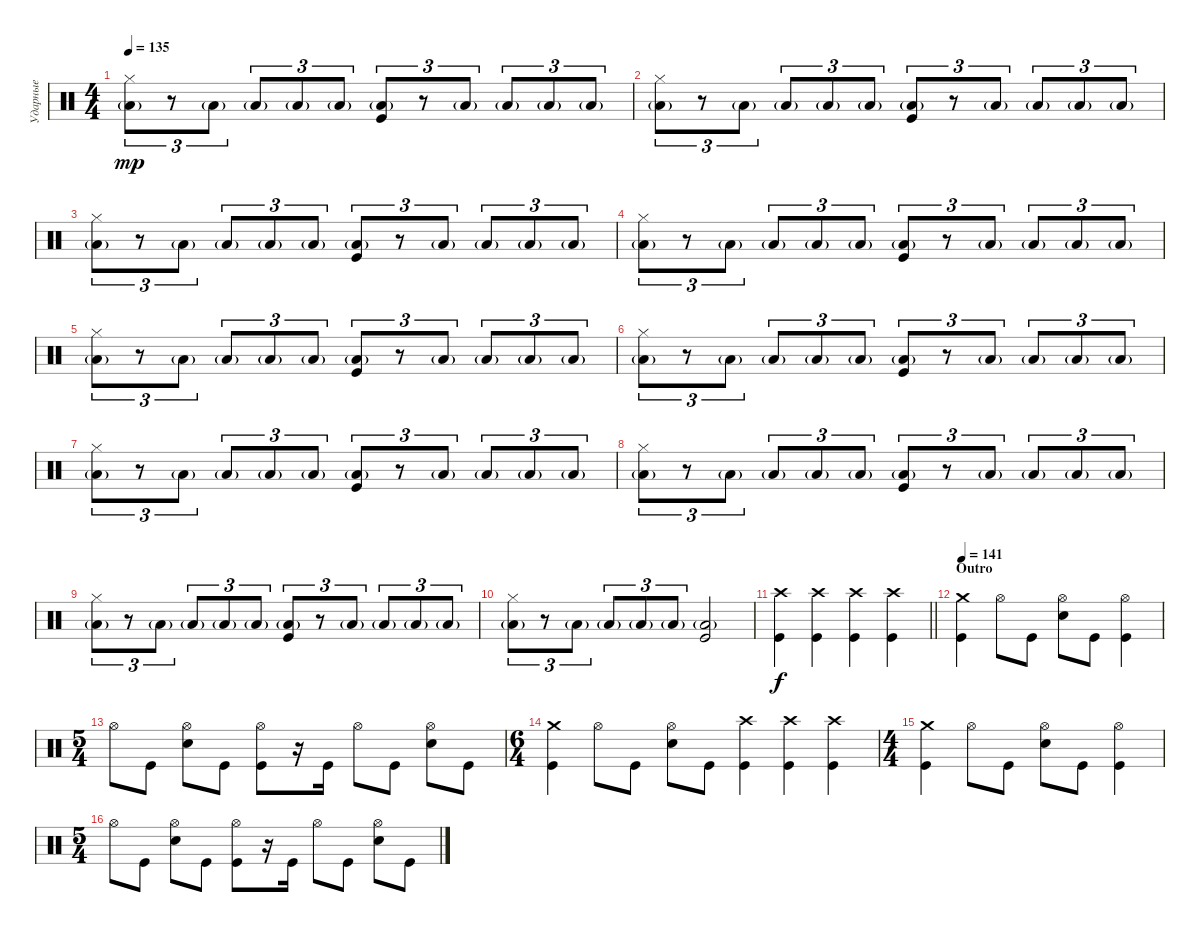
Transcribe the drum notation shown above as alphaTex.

\track ("Ударные" "Ударные") {instrument percussion}
\staff {score}
\articulation defaults
\ts (4 4)
\tempo 135
\clef neutral
\ks c
("Hi-Hat (closed)" "Low Floor Tom (hit)"{g}).8{tu (3 2) dy mp} r.8{tu (3 2)} "Low Floor Tom (hit)"{g}.8{tu (3 2)} "Low Floor Tom (hit)"{g}.8{tu (3 2)} "Low Floor Tom (hit)"{g}.8{tu (3 2)} "Low Floor Tom (hit)"{g}.8{tu (3 2)} ("Low Floor Tom (hit)"{g} "Kick (hit)").8{tu (3 2)} r.8{tu (3 2)} "Low Floor Tom (hit)"{g}.8{tu (3 2)} "Low Floor Tom (hit)"{g}.8{tu (3 2)} "Low Floor Tom (hit)"{g}.8{tu (3 2)} "Low Floor Tom (hit)"{g}.8{tu (3 2)} |
("Hi-Hat (closed)" "Low Floor Tom (hit)"{g}).8{tu (3 2)} r.8{tu (3 2)} "Low Floor Tom (hit)"{g}.8{tu (3 2)} "Low Floor Tom (hit)"{g}.8{tu (3 2)} "Low Floor Tom (hit)"{g}.8{tu (3 2)} "Low Floor Tom (hit)"{g}.8{tu (3 2)} ("Low Floor Tom (hit)"{g} "Kick (hit)").8{tu (3 2)} r.8{tu (3 2)} "Low Floor Tom (hit)"{g}.8{tu (3 2)} "Low Floor Tom (hit)"{g}.8{tu (3 2)} "Low Floor Tom (hit)"{g}.8{tu (3 2)} "Low Floor Tom (hit)"{g}.8{tu (3 2)} |
("Hi-Hat (closed)" "Low Floor Tom (hit)"{g}).8{tu (3 2)} r.8{tu (3 2)} "Low Floor Tom (hit)"{g}.8{tu (3 2)} "Low Floor Tom (hit)"{g}.8{tu (3 2)} "Low Floor Tom (hit)"{g}.8{tu (3 2)} "Low Floor Tom (hit)"{g}.8{tu (3 2)} ("Low Floor Tom (hit)"{g} "Kick (hit)").8{tu (3 2)} r.8{tu (3 2)} "Low Floor Tom (hit)"{g}.8{tu (3 2)} "Low Floor Tom (hit)"{g}.8{tu (3 2)} "Low Floor Tom (hit)"{g}.8{tu (3 2)} "Low Floor Tom (hit)"{g}.8{tu (3 2)} |
("Hi-Hat (closed)" "Low Floor Tom (hit)"{g}).8{tu (3 2)} r.8{tu (3 2)} "Low Floor Tom (hit)"{g}.8{tu (3 2)} "Low Floor Tom (hit)"{g}.8{tu (3 2)} "Low Floor Tom (hit)"{g}.8{tu (3 2)} "Low Floor Tom (hit)"{g}.8{tu (3 2)} ("Low Floor Tom (hit)"{g} "Kick (hit)").8{tu (3 2)} r.8{tu (3 2)} "Low Floor Tom (hit)"{g}.8{tu (3 2)} "Low Floor Tom (hit)"{g}.8{tu (3 2)} "Low Floor Tom (hit)"{g}.8{tu (3 2)} "Low Floor Tom (hit)"{g}.8{tu (3 2)} |
("Hi-Hat (closed)" "Low Floor Tom (hit)"{g}).8{tu (3 2)} r.8{tu (3 2)} "Low Floor Tom (hit)"{g}.8{tu (3 2)} "Low Floor Tom (hit)"{g}.8{tu (3 2)} "Low Floor Tom (hit)"{g}.8{tu (3 2)} "Low Floor Tom (hit)"{g}.8{tu (3 2)} ("Low Floor Tom (hit)"{g} "Kick (hit)").8{tu (3 2)} r.8{tu (3 2)} "Low Floor Tom (hit)"{g}.8{tu (3 2)} "Low Floor Tom (hit)"{g}.8{tu (3 2)} "Low Floor Tom (hit)"{g}.8{tu (3 2)} "Low Floor Tom (hit)"{g}.8{tu (3 2)} |
("Hi-Hat (closed)" "Low Floor Tom (hit)"{g}).8{tu (3 2)} r.8{tu (3 2)} "Low Floor Tom (hit)"{g}.8{tu (3 2)} "Low Floor Tom (hit)"{g}.8{tu (3 2)} "Low Floor Tom (hit)"{g}.8{tu (3 2)} "Low Floor Tom (hit)"{g}.8{tu (3 2)} ("Low Floor Tom (hit)"{g} "Kick (hit)").8{tu (3 2)} r.8{tu (3 2)} "Low Floor Tom (hit)"{g}.8{tu (3 2)} "Low Floor Tom (hit)"{g}.8{tu (3 2)} "Low Floor Tom (hit)"{g}.8{tu (3 2)} "Low Floor Tom (hit)"{g}.8{tu (3 2)} |
("Hi-Hat (closed)" "Low Floor Tom (hit)"{g}).8{tu (3 2)} r.8{tu (3 2)} "Low Floor Tom (hit)"{g}.8{tu (3 2)} "Low Floor Tom (hit)"{g}.8{tu (3 2)} "Low Floor Tom (hit)"{g}.8{tu (3 2)} "Low Floor Tom (hit)"{g}.8{tu (3 2)} ("Low Floor Tom (hit)"{g} "Kick (hit)").8{tu (3 2)} r.8{tu (3 2)} "Low Floor Tom (hit)"{g}.8{tu (3 2)} "Low Floor Tom (hit)"{g}.8{tu (3 2)} "Low Floor Tom (hit)"{g}.8{tu (3 2)} "Low Floor Tom (hit)"{g}.8{tu (3 2)} |
("Hi-Hat (closed)" "Low Floor Tom (hit)"{g}).8{tu (3 2)} r.8{tu (3 2)} "Low Floor Tom (hit)"{g}.8{tu (3 2)} "Low Floor Tom (hit)"{g}.8{tu (3 2)} "Low Floor Tom (hit)"{g}.8{tu (3 2)} "Low Floor Tom (hit)"{g}.8{tu (3 2)} ("Low Floor Tom (hit)"{g} "Kick (hit)").8{tu (3 2)} r.8{tu (3 2)} "Low Floor Tom (hit)"{g}.8{tu (3 2)} "Low Floor Tom (hit)"{g}.8{tu (3 2)} "Low Floor Tom (hit)"{g}.8{tu (3 2)} "Low Floor Tom (hit)"{g}.8{tu (3 2)} |
("Hi-Hat (closed)" "Low Floor Tom (hit)"{g}).8{tu (3 2)} r.8{tu (3 2)} "Low Floor Tom (hit)"{g}.8{tu (3 2)} "Low Floor Tom (hit)"{g}.8{tu (3 2)} "Low Floor Tom (hit)"{g}.8{tu (3 2)} "Low Floor Tom (hit)"{g}.8{tu (3 2)} ("Low Floor Tom (hit)"{g} "Kick (hit)").8{tu (3 2)} r.8{tu (3 2)} "Low Floor Tom (hit)"{g}.8{tu (3 2)} "Low Floor Tom (hit)"{g}.8{tu (3 2)} "Low Floor Tom (hit)"{g}.8{tu (3 2)} "Low Floor Tom (hit)"{g}.8{tu (3 2)} |
("Hi-Hat (closed)" "Low Floor Tom (hit)"{g}).8{tu (3 2)} r.8{tu (3 2)} "Low Floor Tom (hit)"{g}.8{tu (3 2)} "Low Floor Tom (hit)"{g}.8{tu (3 2)} "Low Floor Tom (hit)"{g}.8{tu (3 2)} "Low Floor Tom (hit)"{g}.8{tu (3 2)} ("Low Floor Tom (hit)"{g} "Kick (hit)").2 |
\barLineRight lightlight
("Crash high (hit)" "Kick (hit)").4{dy f} ("Crash high (hit)" "Kick (hit)").4 ("Crash high (hit)" "Kick (hit)").4 ("Crash high (hit)" "Kick (hit)").4 |
\section ("" "Outro")
\tempo 141
("Crash medium (hit)" "Kick (hit)").4 "Hi-Hat (open)".8 "Kick (hit)".8 ("Hi-Hat (open)" "Electric Snare (hit)").8 "Kick (hit)".8 ("Hi-Hat (open)" "Kick (hit)").4 |
\ts (5 4)
"Hi-Hat (open)".8 "Kick (hit)".8 ("Hi-Hat (open)" "Electric Snare (hit)").8 "Kick (hit)".8 ("Hi-Hat (open)" "Kick (hit)").8 r.16 "Kick (hit)".16 "Hi-Hat (open)".8 "Kick (hit)".8 ("Hi-Hat (open)" "Electric Snare (hit)").8 "Kick (hit)".8 |
\ts (6 4)
("Crash medium (hit)" "Kick (hit)").4 "Hi-Hat (open)".8 "Kick (hit)".8 ("Hi-Hat (open)" "Electric Snare (hit)").8 "Kick (hit)".8 ("Crash high (hit)" "Kick (hit)").4 ("Crash high (hit)" "Kick (hit)").4 ("Crash high (hit)" "Kick (hit)").4 |
\ts (4 4)
("Crash medium (hit)" "Kick (hit)").4 "Hi-Hat (open)".8 "Kick (hit)".8 ("Hi-Hat (open)" "Electric Snare (hit)").8 "Kick (hit)".8 ("Hi-Hat (open)" "Kick (hit)").4 |
\ts (5 4)
"Hi-Hat (open)".8 "Kick (hit)".8 ("Hi-Hat (open)" "Electric Snare (hit)").8 "Kick (hit)".8 ("Hi-Hat (open)" "Kick (hit)").8 r.16 "Kick (hit)".16 "Hi-Hat (open)".8 "Kick (hit)".8 ("Hi-Hat (open)" "Electric Snare (hit)").8 "Kick (hit)".8
